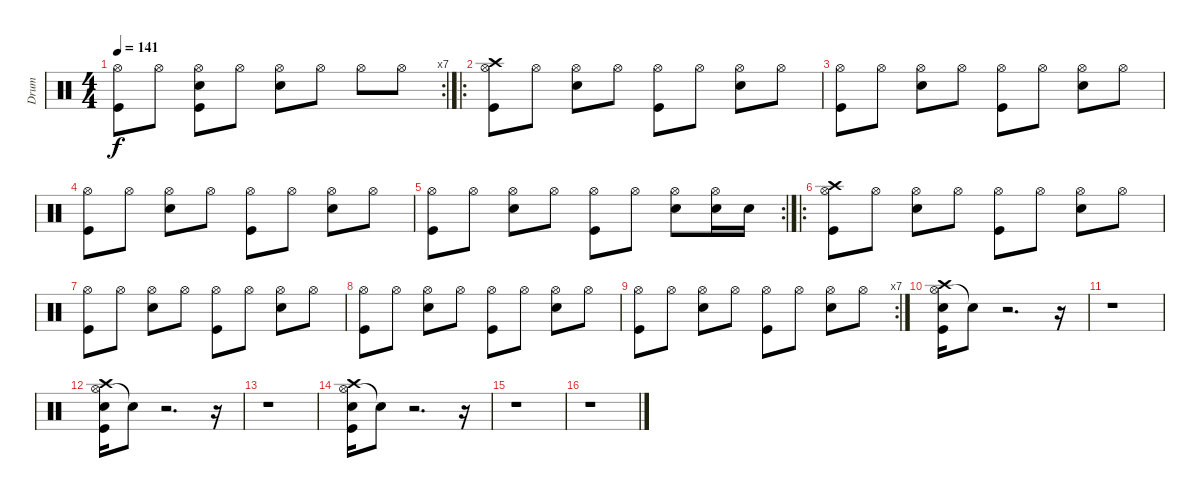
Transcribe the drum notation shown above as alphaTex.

\track ("Drum" "Drum") {instrument percussion}
\staff {score}
\articulation defaults
\rc 7
\ts (4 4)
\tempo 141
\clef neutral
\ks c
("Hi-Hat (open)" "Kick (hit)").8{dy f} "Hi-Hat (open)".8 ("Hi-Hat (open)" "Electric Snare (hit)" "Kick (hit)").8 "Hi-Hat (open)".8 ("Hi-Hat (open)" "Electric Snare (hit)").8 "Hi-Hat (open)".8 "Hi-Hat (open)".8 "Hi-Hat (open)".8 |
\ro
("Hi-Hat (open)" "Crash high (hit)" "Kick (hit)").8 "Hi-Hat (open)".8 ("Hi-Hat (open)" "Electric Snare (hit)").8 "Hi-Hat (open)".8 ("Hi-Hat (open)" "Kick (hit)").8 "Hi-Hat (open)".8 ("Hi-Hat (open)" "Electric Snare (hit)").8 "Hi-Hat (open)".8 |
("Hi-Hat (open)" "Kick (hit)").8 "Hi-Hat (open)".8 ("Hi-Hat (open)" "Electric Snare (hit)").8 "Hi-Hat (open)".8 ("Hi-Hat (open)" "Kick (hit)").8 "Hi-Hat (open)".8 ("Hi-Hat (open)" "Electric Snare (hit)").8 "Hi-Hat (open)".8 |
("Hi-Hat (open)" "Kick (hit)").8 "Hi-Hat (open)".8 ("Hi-Hat (open)" "Electric Snare (hit)").8 "Hi-Hat (open)".8 ("Hi-Hat (open)" "Kick (hit)").8 "Hi-Hat (open)".8 ("Hi-Hat (open)" "Electric Snare (hit)").8 "Hi-Hat (open)".8 |
\rc 2
("Hi-Hat (open)" "Kick (hit)").8 "Hi-Hat (open)".8 ("Hi-Hat (open)" "Electric Snare (hit)").8 "Hi-Hat (open)".8 ("Hi-Hat (open)" "Kick (hit)").8 "Hi-Hat (open)".8 ("Hi-Hat (open)" "Electric Snare (hit)").8 ("Hi-Hat (open)" "Electric Snare (hit)").16 "Electric Snare (hit)".16 |
\ro
("Hi-Hat (open)" "Crash high (hit)" "Kick (hit)").8 "Hi-Hat (open)".8 ("Hi-Hat (open)" "Electric Snare (hit)").8 "Hi-Hat (open)".8 ("Hi-Hat (open)" "Kick (hit)").8 "Hi-Hat (open)".8 ("Hi-Hat (open)" "Electric Snare (hit)").8 "Hi-Hat (open)".8 |
("Hi-Hat (open)" "Kick (hit)").8 "Hi-Hat (open)".8 ("Hi-Hat (open)" "Electric Snare (hit)").8 "Hi-Hat (open)".8 ("Hi-Hat (open)" "Kick (hit)").8 "Hi-Hat (open)".8 ("Hi-Hat (open)" "Electric Snare (hit)").8 "Hi-Hat (open)".8 |
("Hi-Hat (open)" "Kick (hit)").8 "Hi-Hat (open)".8 ("Hi-Hat (open)" "Electric Snare (hit)").8 "Hi-Hat (open)".8 ("Hi-Hat (open)" "Kick (hit)").8 "Hi-Hat (open)".8 ("Hi-Hat (open)" "Electric Snare (hit)").8 "Hi-Hat (open)".8 |
\rc 7
("Hi-Hat (open)" "Kick (hit)").8 "Hi-Hat (open)".8 ("Hi-Hat (open)" "Electric Snare (hit)").8 "Hi-Hat (open)".8 ("Hi-Hat (open)" "Kick (hit)").8 "Hi-Hat (open)".8 ("Hi-Hat (open)" "Electric Snare (hit)").8 "Hi-Hat (open)".8 |
("Hi-Hat (open)" "Crash high (hit)" "Electric Snare (hit)" "Kick (hit)").16 "Snare (hit)"{t}.8 r.2{d} r.16 |
r.1 |
("Hi-Hat (open)" "Crash high (hit)" "Electric Snare (hit)" "Kick (hit)").16 "Snare (hit)"{t}.8 r.2{d} r.16 |
r.1 |
("Hi-Hat (open)" "Crash high (hit)" "Electric Snare (hit)" "Kick (hit)").16 "Snare (hit)"{t}.8 r.2{d} r.16 |
r.1 |
r.1
